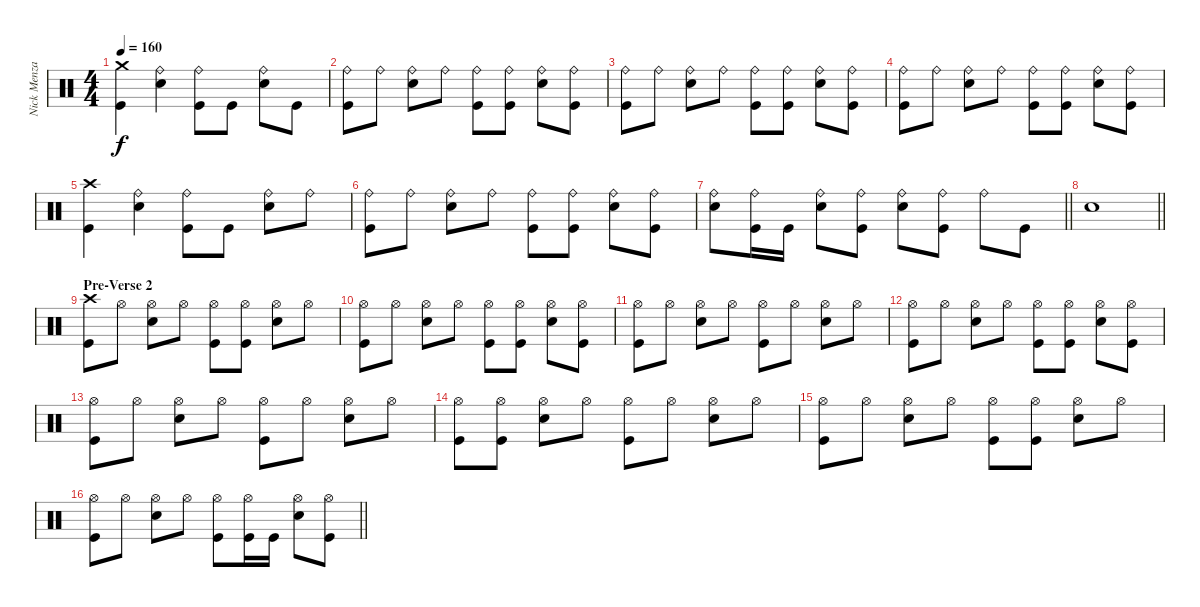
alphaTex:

\track ("Nick Menza" "Nick Menza") {instrument percussion}
\staff {score}
\articulation defaults
\ts (4 4)
\tempo 160
\clef neutral
\ks c
("Crash medium (hit)" "Kick (hit)").4{dy f} ("Ride (bell)" "Snare (hit) 2").4 ("Ride (bell)" "Kick (hit)").8 "Kick (hit)".8 ("Ride (bell)" "Snare (hit) 2").8 "Kick (hit)".8 |
("Ride (bell)" "Kick (hit)").8 "Ride (bell)".8 ("Ride (bell)" "Snare (hit) 2").8 "Ride (bell)".8 ("Ride (bell)" "Kick (hit)").8 ("Ride (bell)" "Kick (hit)").8 ("Ride (bell)" "Snare (hit) 2").8 ("Ride (bell)" "Kick (hit)").8 |
("Ride (bell)" "Kick (hit)").8 "Ride (bell)".8 ("Ride (bell)" "Snare (hit) 2").8 "Ride (bell)".8 ("Ride (bell)" "Kick (hit)").8 ("Ride (bell)" "Kick (hit)").8 ("Ride (bell)" "Snare (hit) 2").8 ("Ride (bell)" "Kick (hit)").8 |
("Ride (bell)" "Kick (hit)").8 "Ride (bell)".8 ("Ride (bell)" "Snare (hit) 2").8 "Ride (bell)".8 ("Ride (bell)" "Kick (hit)").8 ("Ride (bell)" "Kick (hit)").8 ("Ride (bell)" "Snare (hit) 2").8 ("Ride (bell)" "Kick (hit)").8 |
("Crash high (hit)" "Kick (hit)").4 ("Ride (bell)" "Snare (hit) 2").4 ("Ride (bell)" "Kick (hit)").8 "Kick (hit)".8 ("Ride (bell)" "Snare (hit) 2").8 "Ride (bell)".8 |
("Ride (bell)" "Kick (hit)").8 "Ride (bell)".8 ("Ride (bell)" "Snare (hit) 2").8 "Ride (bell)".8 ("Ride (bell)" "Kick (hit)").8 ("Ride (bell)" "Kick (hit)").8 ("Ride (bell)" "Snare (hit) 2").8 ("Ride (bell)" "Kick (hit)").8 |
\barLineRight lightlight
("Ride (bell)" "Snare (hit) 2").8 ("Ride (bell)" "Kick (hit)").16 "Kick (hit)".16 ("Ride (bell)" "Snare (hit) 2").8 ("Ride (bell)" "Kick (hit)").8 ("Ride (bell)" "Snare (hit) 2").8 ("Ride (bell)" "Kick (hit)").8 "Ride (bell)".8 "Kick (hit)".8 |
\barLineRight lightlight "Snare (hit) 2".1
|
\section ("" "Pre-Verse 2")
("Crash high (hit)" "Kick (hit)").8 "Hi-Hat (open)".8 ("Hi-Hat (open)" "Snare (hit) 2").8 "Hi-Hat (open)".8 ("Hi-Hat (open)" "Kick (hit)").8 ("Hi-Hat (open)" "Kick (hit)").8 ("Hi-Hat (open)" "Snare (hit) 2").8 "Hi-Hat (open)".8 |
("Hi-Hat (open)" "Kick (hit)").8 "Hi-Hat (open)".8 ("Hi-Hat (open)" "Snare (hit) 2").8 "Hi-Hat (open)".8 ("Hi-Hat (open)" "Kick (hit)").8 ("Hi-Hat (open)" "Kick (hit)").8 ("Hi-Hat (open)" "Snare (hit) 2").8 ("Hi-Hat (open)" "Kick (hit)").8 |
("Hi-Hat (open)" "Kick (hit)").8 "Hi-Hat (open)".8 ("Hi-Hat (open)" "Snare (hit) 2").8 "Hi-Hat (open)".8 ("Hi-Hat (open)" "Kick (hit)").8 "Hi-Hat (open)".8 ("Hi-Hat (open)" "Snare (hit) 2").8 "Hi-Hat (open)".8 |
("Hi-Hat (open)" "Kick (hit)").8 "Hi-Hat (open)".8 ("Hi-Hat (open)" "Snare (hit) 2").8 "Hi-Hat (open)".8 ("Hi-Hat (open)" "Kick (hit)").8 ("Hi-Hat (open)" "Kick (hit)").8 ("Hi-Hat (open)" "Snare (hit) 2").8 ("Hi-Hat (open)" "Kick (hit)").8 |
("Hi-Hat (open)" "Kick (hit)").8 "Hi-Hat (open)".8 ("Hi-Hat (open)" "Snare (hit) 2").8 "Hi-Hat (open)".8 ("Hi-Hat (open)" "Kick (hit)").8 "Hi-Hat (open)".8 ("Hi-Hat (open)" "Snare (hit) 2").8 "Hi-Hat (open)".8 |
("Hi-Hat (open)" "Kick (hit)").8 ("Hi-Hat (open)" "Kick (hit)").8 ("Hi-Hat (open)" "Snare (hit) 2").8 "Hi-Hat (open)".8 ("Hi-Hat (open)" "Kick (hit)").8 "Hi-Hat (open)".8 ("Hi-Hat (open)" "Snare (hit) 2").8 "Hi-Hat (open)".8 |
("Hi-Hat (open)" "Kick (hit)").8 "Hi-Hat (open)".8 ("Hi-Hat (open)" "Snare (hit) 2").8 "Hi-Hat (open)".8 ("Hi-Hat (open)" "Kick (hit)").8 ("Hi-Hat (open)" "Kick (hit)").8 ("Hi-Hat (open)" "Snare (hit) 2").8 "Hi-Hat (open)".8 |
\barLineRight lightlight
("Hi-Hat (open)" "Kick (hit)").8 "Hi-Hat (open)".8 ("Hi-Hat (open)" "Snare (hit) 2").8 "Hi-Hat (open)".8 ("Hi-Hat (open)" "Kick (hit)").8 ("Hi-Hat (open)" "Kick (hit)").16 "Kick (hit)".16 ("Hi-Hat (open)" "Snare (hit) 2").8 ("Hi-Hat (open)" "Kick (hit)").8
